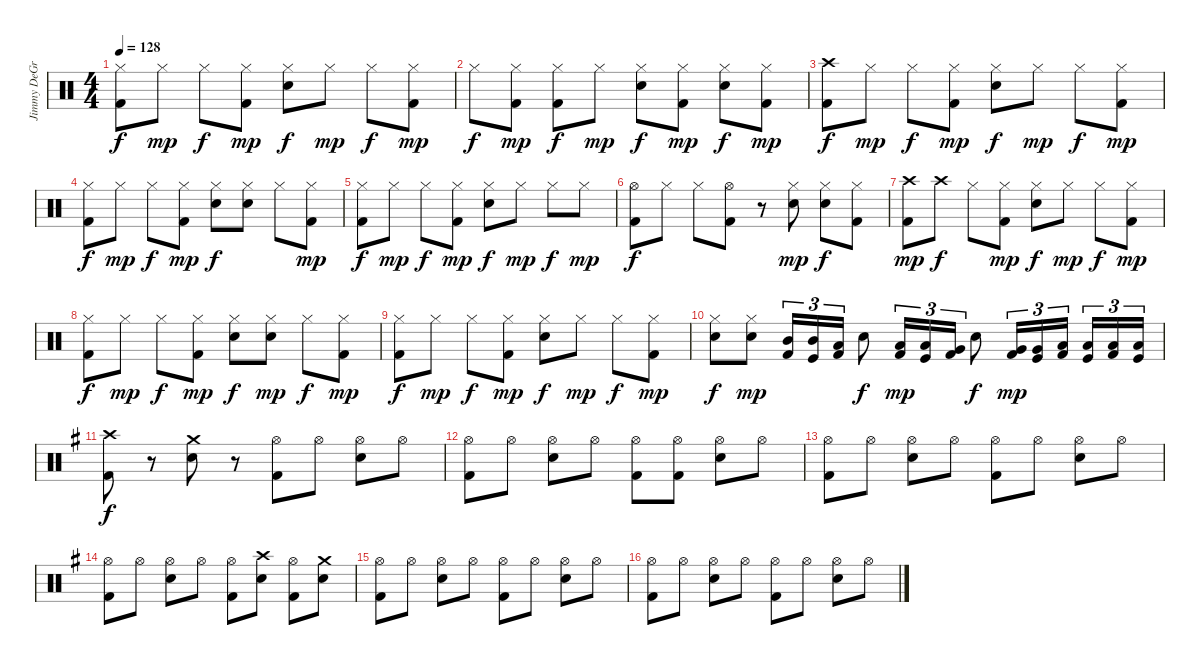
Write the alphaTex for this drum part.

\track ("Jimmy DeGrasso" "Jimmy DeGr") {instrument percussion}
\staff {score}
\articulation defaults
\ts (4 4)
\tempo 128
\clef neutral
\ks c
("Hi-Hat (closed)" "Kick (hit) 2").8{dy f} "Hi-Hat (closed)".8{dy mp} "Hi-Hat (closed)".8{dy f} ("Hi-Hat (closed)" "Kick (hit) 2").8{dy mp} ("Hi-Hat (closed)" "Snare (hit) 2").8{dy f} "Hi-Hat (closed)".8{dy mp} "Hi-Hat (closed)".8{dy f} ("Hi-Hat (closed)" "Kick (hit) 2").8{dy mp} |
"Hi-Hat (closed)".8{dy f} ("Hi-Hat (closed)" "Kick (hit) 2").8{dy mp} ("Hi-Hat (closed)" "Kick (hit) 2").8{dy f} "Hi-Hat (closed)".8{dy mp} ("Hi-Hat (closed)" "Snare (hit) 2").8{dy f} ("Hi-Hat (closed)" "Kick (hit) 2").8{dy mp} ("Hi-Hat (closed)" "Snare (hit) 2").8{dy f} ("Hi-Hat (closed)" "Kick (hit) 2").8{dy mp} |
("Crash high (hit)" "Kick (hit) 2").8{dy f} "Hi-Hat (closed)".8{dy mp} "Hi-Hat (closed)".8{dy f} ("Hi-Hat (closed)" "Kick (hit) 2").8{dy mp} ("Hi-Hat (closed)" "Snare (hit) 2").8{dy f} "Hi-Hat (closed)".8{dy mp} "Hi-Hat (closed)".8{dy f} ("Hi-Hat (closed)" "Kick (hit) 2").8{dy mp} |
("Hi-Hat (closed)" "Kick (hit) 2").8{dy f} "Hi-Hat (closed)".8{dy mp} "Hi-Hat (closed)".8{dy f} ("Hi-Hat (closed)" "Kick (hit) 2").8{dy mp} ("Hi-Hat (closed)" "Snare (hit) 2").8{dy f} ("Hi-Hat (closed)" "Snare (hit) 2").8 "Hi-Hat (closed)".8 ("Hi-Hat (closed)" "Kick (hit) 2").8{dy mp} |
("Hi-Hat (closed)" "Kick (hit) 2").8{dy f} "Hi-Hat (closed)".8{dy mp} "Hi-Hat (closed)".8{dy f} ("Hi-Hat (closed)" "Kick (hit) 2").8{dy mp} ("Hi-Hat (closed)" "Snare (hit) 2").8{dy f} "Hi-Hat (closed)".8{dy mp} "Hi-Hat (closed)".8{dy f} "Hi-Hat (closed)".8{dy mp} |
("Hi-Hat (open)" "Kick (hit) 2").8{dy f} "Hi-Hat (closed)".8 "Hi-Hat (closed)".8 ("Hi-Hat (open)" "Kick (hit) 2").8 r.8 ("Hi-Hat (closed)" "Snare (hit) 2").8{dy mp} ("Hi-Hat (closed)" "Snare (hit) 2").8{dy f} ("Hi-Hat (closed)" "Kick (hit) 2").8 |
("Crash high (hit)" "Kick (hit) 2").8{dy mp} "Crash high (hit)".8{dy f} "Hi-Hat (closed)".8 ("Hi-Hat (closed)" "Kick (hit) 2").8{dy mp} ("Hi-Hat (closed)" "Snare (hit) 2").8{dy f} "Hi-Hat (closed)".8{dy mp} "Hi-Hat (closed)".8{dy f} ("Hi-Hat (closed)" "Kick (hit) 2").8{dy mp} |
("Hi-Hat (closed)" "Kick (hit) 2").8{dy f} "Hi-Hat (closed)".8{dy mp} "Hi-Hat (closed)".8{dy f} ("Hi-Hat (closed)" "Kick (hit) 2").8{dy mp} ("Hi-Hat (closed)" "Snare (hit) 2").8{dy f} ("Hi-Hat (closed)" "Snare (hit) 2").8{dy mp} "Hi-Hat (closed)".8{dy f} ("Hi-Hat (closed)" "Kick (hit) 2").8{dy mp} |
("Hi-Hat (closed)" "Kick (hit) 2").8{dy f} "Hi-Hat (closed)".8{dy mp} "Hi-Hat (closed)".8{dy f} ("Hi-Hat (closed)" "Kick (hit) 2").8{dy mp} ("Hi-Hat (closed)" "Snare (hit) 2").8{dy f} "Hi-Hat (closed)".8{dy mp} "Hi-Hat (closed)".8{dy f} ("Hi-Hat (closed)" "Kick (hit) 2").8{dy mp} |
("Hi-Hat (closed)" "Snare (hit) 2").8{dy f} ("Hi-Hat (closed)" "Snare (hit) 2").8{dy mp} ("Mid Tom (hit)" "Kick (hit) 2").16{tu (3 2)} ("Mid Tom (hit)" "Kick (hit)").16{tu (3 2)} ("Low Tom (hit)" "Kick (hit) 2").16{tu (3 2)} "Snare (hit) 2".8{dy f} ("Low Tom (hit)" "Kick (hit) 2").16{tu (3 2) dy mp} ("Low Tom (hit)" "Kick (hit)").16{tu (3 2)} ("Very Low Tom (hit)" "Kick (hit) 2").16{tu (3 2)} "Snare (hit) 2".8{dy f} ("Very Low Tom (hit)" "Kick (hit) 2").16{tu (3 2) dy mp} ("Very Low Tom (hit)" "Kick (hit)").16{tu (3 2)} ("Low Floor Tom (hit)" "Kick (hit) 2").16{tu (3 2) beam splitsecondary} ("Low Floor Tom (hit)" "Kick (hit)").16{tu (3 2)} ("Low Floor Tom (hit)" "Kick (hit) 2").16{tu (3 2)} ("Low Floor Tom (hit)" "Kick (hit)").16{tu (3 2)} |
\ks g
("Crash high (hit)" "Kick (hit) 2").8{dy f} r.8 ("Crash medium (hit)" "Snare (hit) 2").8 r.8 ("Hi-Hat (open)" "Kick (hit) 2").8 "Hi-Hat (open)".8 ("Hi-Hat (open)" "Snare (hit) 2").8 "Hi-Hat (open)".8 |
("Hi-Hat (open)" "Kick (hit) 2").8 "Hi-Hat (open)".8 ("Hi-Hat (open)" "Snare (hit) 2").8 "Hi-Hat (open)".8 ("Hi-Hat (open)" "Kick (hit) 2").8 ("Hi-Hat (open)" "Kick (hit) 2").8 ("Hi-Hat (open)" "Snare (hit) 2").8 "Hi-Hat (open)".8 |
("Hi-Hat (open)" "Kick (hit) 2").8 "Hi-Hat (open)".8 ("Hi-Hat (open)" "Snare (hit) 2").8 "Hi-Hat (open)".8 ("Hi-Hat (open)" "Kick (hit) 2").8 "Hi-Hat (open)".8 ("Hi-Hat (open)" "Snare (hit) 2").8 "Hi-Hat (open)".8 |
("Hi-Hat (open)" "Kick (hit) 2").8 "Hi-Hat (open)".8 ("Hi-Hat (open)" "Snare (hit) 2").8 "Hi-Hat (open)".8 ("Hi-Hat (open)" "Kick (hit) 2").8 ("Crash high (hit)" "Snare (hit) 2").8 ("Hi-Hat (open)" "Kick (hit) 2").8 ("Crash medium (hit)" "Snare (hit) 2").8 |
("Hi-Hat (open)" "Kick (hit) 2").8 "Hi-Hat (open)".8 ("Hi-Hat (open)" "Snare (hit) 2").8 "Hi-Hat (open)".8 ("Hi-Hat (open)" "Kick (hit) 2").8 "Hi-Hat (open)".8 ("Hi-Hat (open)" "Snare (hit) 2").8 "Hi-Hat (open)".8 |
("Hi-Hat (open)" "Kick (hit) 2").8 "Hi-Hat (open)".8 ("Hi-Hat (open)" "Snare (hit) 2").8 "Hi-Hat (open)".8 ("Hi-Hat (open)" "Kick (hit) 2").8 "Hi-Hat (open)".8 ("Hi-Hat (open)" "Snare (hit) 2").8 "Hi-Hat (open)".8
